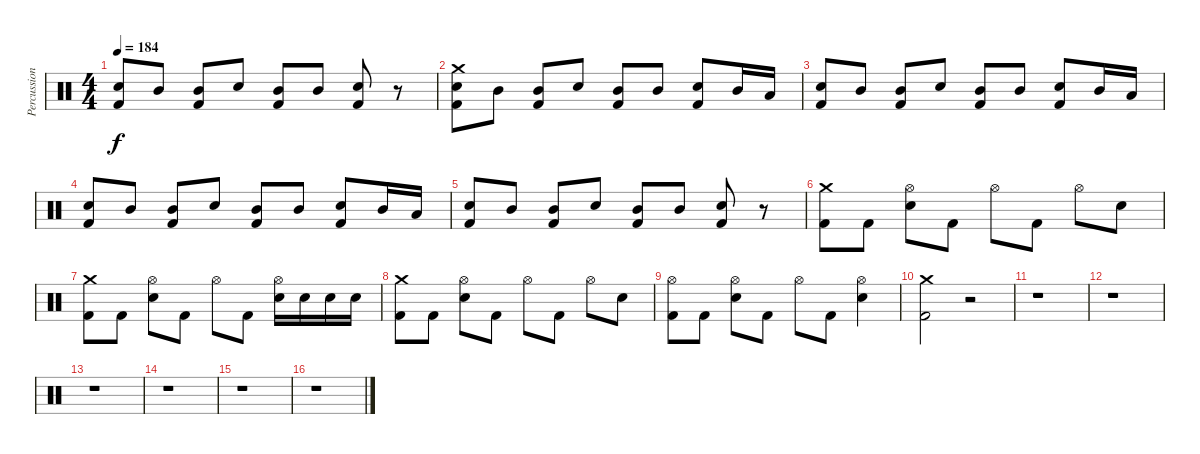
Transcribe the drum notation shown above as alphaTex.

\track ("Percussion" "Percussion") {instrument percussion}
\staff {score}
\articulation defaults
\ts (4 4)
\tempo 184
\clef neutral
\ks c
("Electric Snare (hit)" "Kick (hit) 2").8{dy f} "Mid Tom (hit)".8 ("Mid Tom (hit)" "Kick (hit) 2").8 "Electric Snare (hit)".8 ("Mid Tom (hit)" "Kick (hit) 2").8 "Mid Tom (hit)".8 ("Electric Snare (hit)" "Kick (hit) 2").8 r.8 |
("Crash medium (hit)" "Electric Snare (hit)" "Kick (hit) 2").8 "Mid Tom (hit)".8 ("Mid Tom (hit)" "Kick (hit) 2").8 "Electric Snare (hit)".8 ("Mid Tom (hit)" "Kick (hit) 2").8 "Mid Tom (hit)".8 ("Electric Snare (hit)" "Kick (hit) 2").8 "Mid Tom (hit)".16 "Low Tom (hit)".16 |
("Electric Snare (hit)" "Kick (hit) 2").8 "Mid Tom (hit)".8 ("Mid Tom (hit)" "Kick (hit) 2").8 "Electric Snare (hit)".8 ("Mid Tom (hit)" "Kick (hit) 2").8 "Mid Tom (hit)".8 ("Electric Snare (hit)" "Kick (hit) 2").8 "Mid Tom (hit)".16 "Low Tom (hit)".16 |
("Electric Snare (hit)" "Kick (hit) 2").8 "Mid Tom (hit)".8 ("Mid Tom (hit)" "Kick (hit) 2").8 "Electric Snare (hit)".8 ("Mid Tom (hit)" "Kick (hit) 2").8 "Mid Tom (hit)".8 ("Electric Snare (hit)" "Kick (hit) 2").8 "Mid Tom (hit)".16 "Low Tom (hit)".16 |
("Electric Snare (hit)" "Kick (hit) 2").8 "Mid Tom (hit)".8 ("Mid Tom (hit)" "Kick (hit) 2").8 "Electric Snare (hit)".8 ("Mid Tom (hit)" "Kick (hit) 2").8 "Mid Tom (hit)".8 ("Electric Snare (hit)" "Kick (hit) 2").8 r.8 |
("Crash medium (hit)" "Kick (hit) 2").8 "Kick (hit) 2".8 ("Hi-Hat (open)" "Electric Snare (hit)").8 "Kick (hit) 2".8 "Hi-Hat (open)".8 "Kick (hit) 2".8 "Hi-Hat (open)".8 "Electric Snare (hit)".8 |
("Crash medium (hit)" "Kick (hit) 2").8 "Kick (hit) 2".8 ("Hi-Hat (open)" "Electric Snare (hit)").8 "Kick (hit) 2".8 "Hi-Hat (open)".8 "Kick (hit) 2".8 ("Hi-Hat (open)" "Electric Snare (hit)").16 "Electric Snare (hit)".16 "Electric Snare (hit)".16 "Electric Snare (hit)".16 |
("Crash medium (hit)" "Kick (hit) 2").8 "Kick (hit) 2".8 ("Hi-Hat (open)" "Electric Snare (hit)").8 "Kick (hit) 2".8 "Hi-Hat (open)".8 "Kick (hit) 2".8 "Hi-Hat (open)".8 "Electric Snare (hit)".8 |
("Hi-Hat (open)" "Kick (hit) 2").8 "Kick (hit) 2".8 ("Hi-Hat (open)" "Electric Snare (hit)").8 "Kick (hit) 2".8 "Hi-Hat (open)".8 "Kick (hit) 2".8 ("Hi-Hat (open)" "Electric Snare (hit)").4 |
("Crash medium (hit)" "Kick (hit) 2").2 r.2 |
r.1 |
r.1 |
r.1 |
r.1 |
r.1 |
r.1
